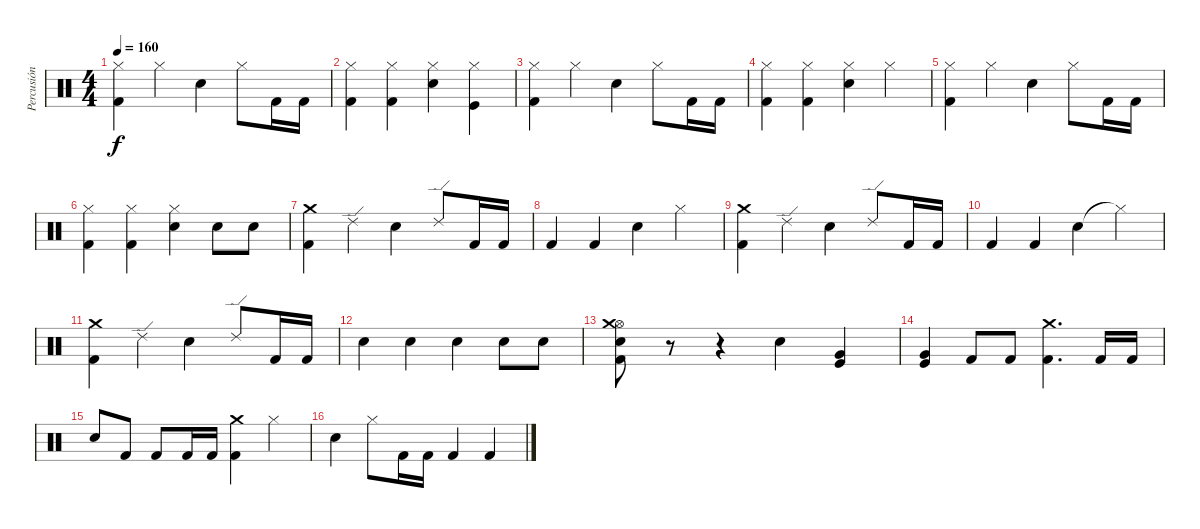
\track ("Percusión" "Percusión") {instrument percussion}
\staff {score}
\articulation defaults
\ts (4 4)
\tempo 160
\clef neutral
\ks c
("Kick (hit) 2" "Hi-Hat (closed)").4{dy f} "Hi-Hat (closed)".4 "Snare (hit) 2".4 "Hi-Hat (closed)".8 "Kick (hit) 2".16 "Kick (hit) 2".16 |
("Kick (hit) 2" "Hi-Hat (closed)").4 ("Kick (hit) 2" "Hi-Hat (closed)").4 ("Snare (hit) 2" "Hi-Hat (closed)").4 ("Kick (hit)" "Hi-Hat (closed)").4 |
("Kick (hit) 2" "Hi-Hat (closed)").4 "Hi-Hat (closed)".4 "Snare (hit) 2".4 "Hi-Hat (closed)".8 "Kick (hit) 2".16 "Kick (hit) 2".16 |
("Kick (hit) 2" "Hi-Hat (closed)").4 ("Kick (hit) 2" "Hi-Hat (closed)").4 ("Snare (hit) 2" "Hi-Hat (closed)").4 "Hi-Hat (closed)".4 |
("Kick (hit) 2" "Hi-Hat (closed)").4 "Hi-Hat (closed)".4 "Snare (hit) 2".4 "Hi-Hat (closed)".8 "Kick (hit) 2".16 "Kick (hit) 2".16 |
("Kick (hit) 2" "Hi-Hat (closed)").4 ("Kick (hit) 2" "Hi-Hat (closed)").4 ("Snare (hit) 2" "Hi-Hat (closed)").4 "Snare (hit) 2".8 "Snare (hit) 2".8 |
("Kick (hit) 2" "Crash medium (hit)").4 "Ride (edge) 2".4 "Snare (hit) 2".4 "Ride (edge) 2".8 "Kick (hit) 2".16 "Kick (hit) 2".16 |
"Kick (hit) 2".4 "Kick (hit) 2".4 "Snare (hit) 2".4 "Hi-Hat (closed)".4 |
("Kick (hit) 2" "Crash medium (hit)").4 "Ride (edge) 2".4 "Snare (hit) 2".4 "Ride (edge) 2".8 "Kick (hit) 2".16 "Kick (hit) 2".16 |
"Kick (hit) 2".4 "Kick (hit) 2".4 "Snare (hit) 2".4 "Hi-Hat (closed)"{t}.4 |
("Kick (hit) 2" "Crash medium (hit)").4 "Ride (edge) 2".4 "Snare (hit) 2".4 "Ride (edge) 2".8 "Kick (hit) 2".16 "Kick (hit) 2".16 |
"Snare (hit) 2".4 "Snare (hit) 2".4 "Snare (hit) 2".4 "Snare (hit) 2".8 "Snare (hit) 2".8 |
("Snare (hit) 2" "Kick (hit) 2" "Hi-Hat (open)" "Crash medium (hit)").8 r.8 r.4 "Snare (hit) 2".4 ("Very Low Tom (hit)" "Kick (hit)").4 |
("Very Low Tom (hit)" "Kick (hit)").4 "Kick (hit) 2".8 "Kick (hit) 2".8 ("Kick (hit) 2" "Crash medium (hit)").4{d} "Kick (hit) 2".16 "Kick (hit) 2".16 |
"Snare (hit) 2".8 "Kick (hit) 2".8 "Kick (hit) 2".8 "Kick (hit) 2".16 "Kick (hit) 2".16 ("Kick (hit) 2" "Crash medium (hit)").4 "Hi-Hat (closed)".4 |
"Snare (hit) 2".4 "Hi-Hat (closed)".8 "Kick (hit) 2".16 "Kick (hit) 2".16 "Kick (hit) 2".4 "Kick (hit) 2".4
